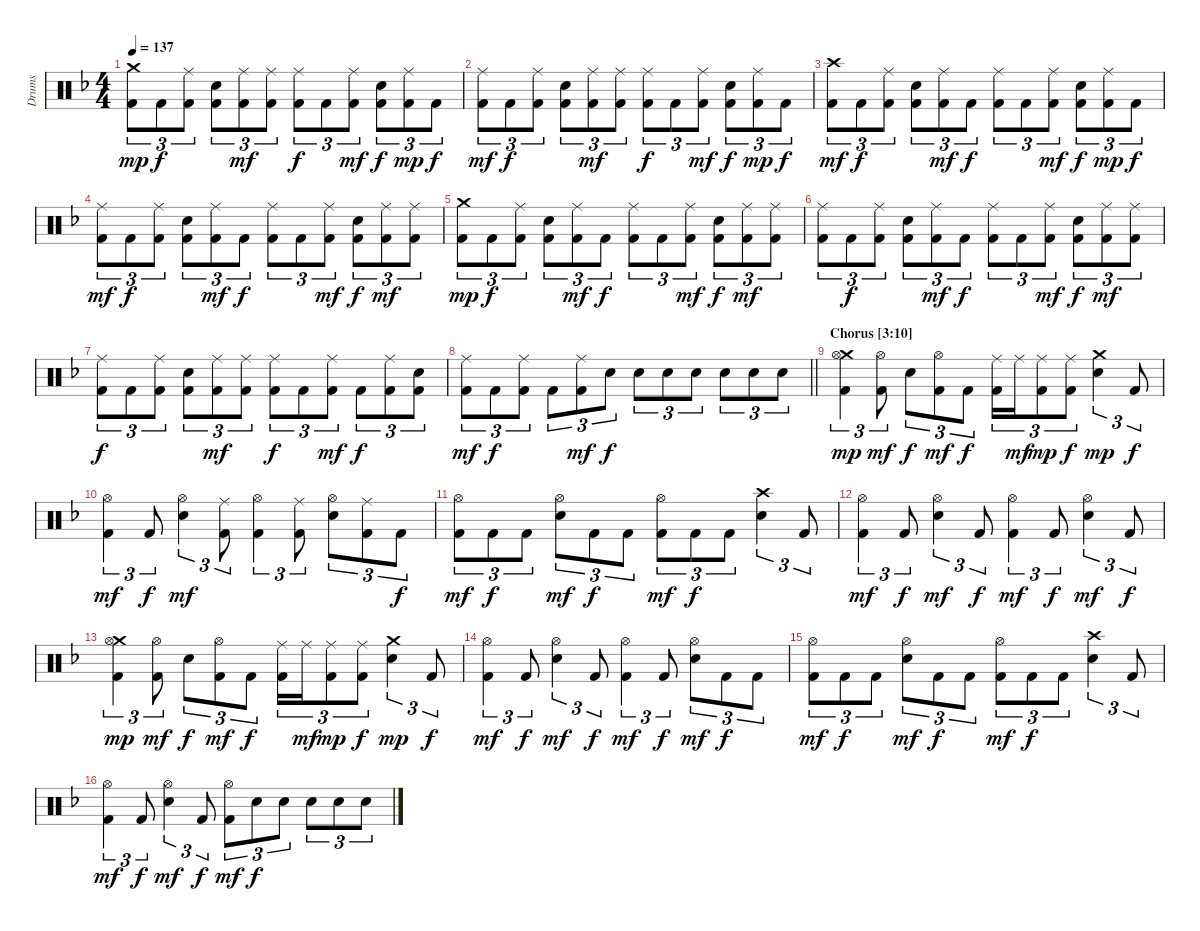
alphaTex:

\track ("Drums" "Drums") {instrument percussion}
\staff {score}
\articulation defaults
\ts (4 4)
\tempo 137
\clef neutral
\ks dminor
("Crash medium (hit)" "Kick (hit) 2").8{tu (3 2) dy mp} "Kick (hit) 2".8{tu (3 2) dy f} ("Ride (middle)" "Kick (hit) 2").8{tu (3 2)} ("Snare (hit) 2" "Kick (hit) 2").8{tu (3 2)} ("Ride (middle)" "Kick (hit) 2").8{tu (3 2) dy mf} ("Ride (middle)" "Kick (hit) 2").8{tu (3 2)} ("Ride (middle)" "Kick (hit) 2").8{tu (3 2) dy f} "Kick (hit) 2".8{tu (3 2)} ("Ride (middle)" "Kick (hit) 2").8{tu (3 2) dy mf} ("Snare (hit) 2" "Kick (hit) 2").8{tu (3 2) dy f} ("Ride (middle)" "Kick (hit) 2").8{tu (3 2) dy mp} "Kick (hit) 2".8{tu (3 2) dy f} |
("Ride (middle)" "Kick (hit) 2").8{tu (3 2) dy mf} "Kick (hit) 2".8{tu (3 2) dy f} ("Ride (middle)" "Kick (hit) 2").8{tu (3 2)} ("Snare (hit) 2" "Kick (hit) 2").8{tu (3 2)} ("Ride (middle)" "Kick (hit) 2").8{tu (3 2) dy mf} ("Ride (middle)" "Kick (hit) 2").8{tu (3 2)} ("Ride (middle)" "Kick (hit) 2").8{tu (3 2) dy f} "Kick (hit) 2".8{tu (3 2)} ("Ride (middle)" "Kick (hit) 2").8{tu (3 2) dy mf} ("Snare (hit) 2" "Kick (hit) 2").8{tu (3 2) dy f} ("Ride (middle)" "Kick (hit) 2").8{tu (3 2) dy mp} "Kick (hit) 2".8{tu (3 2) dy f} |
("Crash high (hit)" "Kick (hit) 2").8{tu (3 2) dy mf} "Kick (hit) 2".8{tu (3 2) dy f} ("Ride (middle)" "Kick (hit) 2").8{tu (3 2)} ("Snare (hit) 2" "Kick (hit) 2").8{tu (3 2)} ("Ride (middle)" "Kick (hit) 2").8{tu (3 2) dy mf} "Kick (hit) 2".8{tu (3 2) dy f} ("Ride (middle)" "Kick (hit) 2").8{tu (3 2)} "Kick (hit) 2".8{tu (3 2)} ("Ride (middle)" "Kick (hit) 2").8{tu (3 2) dy mf} ("Snare (hit) 2" "Kick (hit) 2").8{tu (3 2) dy f} ("Ride (middle)" "Kick (hit) 2").8{tu (3 2) dy mp} "Kick (hit) 2".8{tu (3 2) dy f} |
("Ride (middle)" "Kick (hit) 2").8{tu (3 2) dy mf} "Kick (hit) 2".8{tu (3 2) dy f} ("Ride (middle)" "Kick (hit) 2").8{tu (3 2)} ("Snare (hit) 2" "Kick (hit) 2").8{tu (3 2)} ("Ride (middle)" "Kick (hit) 2").8{tu (3 2) dy mf} "Kick (hit) 2".8{tu (3 2) dy f} ("Ride (middle)" "Kick (hit) 2").8{tu (3 2)} "Kick (hit) 2".8{tu (3 2)} ("Ride (middle)" "Kick (hit) 2").8{tu (3 2) dy mf} ("Snare (hit) 2" "Kick (hit) 2").8{tu (3 2) dy f} ("Ride (middle)" "Kick (hit) 2").8{tu (3 2) dy mf} ("Ride (middle)" "Kick (hit) 2").8{tu (3 2)} |
("Crash medium (hit)" "Kick (hit) 2").8{tu (3 2) dy mp} "Kick (hit) 2".8{tu (3 2) dy f} ("Ride (middle)" "Kick (hit) 2").8{tu (3 2)} ("Snare (hit) 2" "Kick (hit) 2").8{tu (3 2)} ("Ride (middle)" "Kick (hit) 2").8{tu (3 2) dy mf} "Kick (hit) 2".8{tu (3 2) dy f} ("Ride (middle)" "Kick (hit) 2").8{tu (3 2)} "Kick (hit) 2".8{tu (3 2)} ("Ride (middle)" "Kick (hit) 2").8{tu (3 2) dy mf} ("Snare (hit) 2" "Kick (hit) 2").8{tu (3 2) dy f} ("Ride (middle)" "Kick (hit) 2").8{tu (3 2) dy mf} ("Ride (middle)" "Kick (hit) 2").8{tu (3 2)} |
("Ride (middle)" "Kick (hit) 2").8{tu (3 2)} "Kick (hit) 2".8{tu (3 2) dy f} ("Ride (middle)" "Kick (hit) 2").8{tu (3 2)} ("Snare (hit) 2" "Kick (hit) 2").8{tu (3 2)} ("Ride (middle)" "Kick (hit) 2").8{tu (3 2) dy mf} "Kick (hit) 2".8{tu (3 2) dy f} ("Ride (middle)" "Kick (hit) 2").8{tu (3 2)} "Kick (hit) 2".8{tu (3 2)} ("Ride (middle)" "Kick (hit) 2").8{tu (3 2) dy mf} ("Snare (hit) 2" "Kick (hit) 2").8{tu (3 2) dy f} ("Ride (middle)" "Kick (hit) 2").8{tu (3 2) dy mf} ("Ride (middle)" "Kick (hit) 2").8{tu (3 2)} |
("Ride (middle)" "Kick (hit) 2").8{tu (3 2) dy f} "Kick (hit) 2".8{tu (3 2)} ("Ride (middle)" "Kick (hit) 2").8{tu (3 2)} ("Snare (hit) 2" "Kick (hit) 2").8{tu (3 2)} ("Ride (middle)" "Kick (hit) 2").8{tu (3 2) dy mf} ("Ride (middle)" "Kick (hit) 2").8{tu (3 2)} ("Ride (middle)" "Kick (hit) 2").8{tu (3 2) dy f} "Kick (hit) 2".8{tu (3 2)} ("Ride (middle)" "Kick (hit) 2").8{tu (3 2) dy mf} "Kick (hit) 2".8{tu (3 2) dy f} ("Ride (middle)" "Kick (hit) 2").8{tu (3 2)} ("Snare (hit) 2" "Kick (hit) 2").8{tu (3 2)} |
\barLineRight lightlight
("Ride (middle)" "Kick (hit) 2").8{tu (3 2) dy mf} "Kick (hit) 2".8{tu (3 2) dy f} ("Ride (middle)" "Kick (hit) 2").8{tu (3 2)} "Kick (hit) 2".8{tu (3 2)} ("Ride (middle)" "Kick (hit) 2").8{tu (3 2) dy mf} "Snare (hit) 2".8{tu (3 2) dy f} "Snare (hit) 2".8{tu (3 2)} "Snare (hit) 2".8{tu (3 2)} "Snare (hit) 2".8{tu (3 2)} "Snare (hit) 2".8{tu (3 2)} "Snare (hit) 2".8{tu (3 2)} "Snare (hit) 2".8{tu (3 2)} |
\section ("" "Chorus [3:10]")
("Crash medium (hit)" "Hi-Hat (open)" "Kick (hit) 2").4{tu (3 2) dy mp} ("Hi-Hat (open)" "Kick (hit) 2").8{tu (3 2) dy mf} "Snare (hit) 2".8{tu (3 2) dy f} ("Hi-Hat (open)" "Kick (hit) 2").8{tu (3 2) dy mf} "Kick (hit) 2".8{tu (3 2) dy f} ("Ride (middle)" "Kick (hit) 2").16{tu (3 2)} "Ride (middle)".16{tu (3 2) dy mf} ("Ride (middle)" "Kick (hit) 2").8{tu (3 2) dy mp} ("Ride (middle)" "Kick (hit) 2").8{tu (3 2) dy f} ("Crash medium (hit)" "Snare (hit) 2").4{tu (3 2) dy mp} "Kick (hit) 2".8{tu (3 2) dy f} |
("Hi-Hat (open)" "Kick (hit) 2").4{tu (3 2) dy mf} "Kick (hit) 2".8{tu (3 2) dy f} ("Hi-Hat (open)" "Snare (hit) 2").4{tu (3 2) dy mf} ("Ride (middle)" "Kick (hit) 2").8{tu (3 2)} ("Hi-Hat (open)" "Kick (hit) 2").4{tu (3 2)} ("Ride (middle)" "Kick (hit) 2").8{tu (3 2)} ("Hi-Hat (open)" "Snare (hit) 2").8{tu (3 2)} ("Ride (middle)" "Kick (hit) 2").8{tu (3 2)} "Kick (hit) 2".8{tu (3 2) dy f} |
("Hi-Hat (open)" "Kick (hit) 2").8{tu (3 2) dy mf} "Kick (hit) 2".8{tu (3 2) dy f} "Kick (hit) 2".8{tu (3 2)} ("Hi-Hat (open)" "Snare (hit) 2").8{tu (3 2) dy mf} "Kick (hit) 2".8{tu (3 2) dy f} "Kick (hit) 2".8{tu (3 2)} ("Hi-Hat (open)" "Kick (hit) 2").8{tu (3 2) dy mf} "Kick (hit) 2".8{tu (3 2) dy f} "Kick (hit) 2".8{tu (3 2)} ("Crash high (hit)" "Snare (hit) 2").4{tu (3 2)} "Kick (hit) 2".8{tu (3 2)} |
("Hi-Hat (open)" "Kick (hit) 2").4{tu (3 2) dy mf} "Kick (hit) 2".8{tu (3 2) dy f} ("Hi-Hat (open)" "Snare (hit) 2").4{tu (3 2) dy mf} "Kick (hit) 2".8{tu (3 2) dy f} ("Hi-Hat (open)" "Kick (hit) 2").4{tu (3 2) dy mf} "Kick (hit) 2".8{tu (3 2) dy f} ("Hi-Hat (open)" "Snare (hit) 2").4{tu (3 2) dy mf} "Kick (hit) 2".8{tu (3 2) dy f} |
("Crash medium (hit)" "Hi-Hat (open)" "Kick (hit) 2").4{tu (3 2) dy mp} ("Hi-Hat (open)" "Kick (hit) 2").8{tu (3 2) dy mf} "Snare (hit) 2".8{tu (3 2) dy f} ("Hi-Hat (open)" "Kick (hit) 2").8{tu (3 2) dy mf} "Kick (hit) 2".8{tu (3 2) dy f} ("Ride (middle)" "Kick (hit) 2").16{tu (3 2)} "Ride (middle)".16{tu (3 2) dy mf} ("Ride (middle)" "Kick (hit) 2").8{tu (3 2) dy mp} ("Ride (middle)" "Kick (hit) 2").8{tu (3 2) dy f} ("Crash medium (hit)" "Snare (hit) 2").4{tu (3 2) dy mp} "Kick (hit) 2".8{tu (3 2) dy f} |
("Hi-Hat (open)" "Kick (hit) 2").4{tu (3 2) dy mf} "Kick (hit) 2".8{tu (3 2) dy f} ("Hi-Hat (open)" "Snare (hit) 2").4{tu (3 2) dy mf} "Kick (hit) 2".8{tu (3 2) dy f} ("Hi-Hat (open)" "Kick (hit) 2").4{tu (3 2) dy mf} "Kick (hit) 2".8{tu (3 2) dy f} ("Hi-Hat (open)" "Snare (hit) 2").8{tu (3 2) dy mf} "Kick (hit) 2".8{tu (3 2) dy f} "Kick (hit) 2".8{tu (3 2)} |
("Hi-Hat (open)" "Kick (hit) 2").8{tu (3 2) dy mf} "Kick (hit) 2".8{tu (3 2) dy f} "Kick (hit) 2".8{tu (3 2)} ("Hi-Hat (open)" "Snare (hit) 2").8{tu (3 2) dy mf} "Kick (hit) 2".8{tu (3 2) dy f} "Kick (hit) 2".8{tu (3 2)} ("Hi-Hat (open)" "Kick (hit) 2").8{tu (3 2) dy mf} "Kick (hit) 2".8{tu (3 2) dy f} "Kick (hit) 2".8{tu (3 2)} ("Crash high (hit)" "Snare (hit) 2").4{tu (3 2)} "Kick (hit) 2".8{tu (3 2)} |
("Hi-Hat (open)" "Kick (hit) 2").4{tu (3 2) dy mf} "Kick (hit) 2".8{tu (3 2) dy f} ("Hi-Hat (open)" "Snare (hit) 2").4{tu (3 2) dy mf} "Kick (hit) 2".8{tu (3 2) dy f} ("Hi-Hat (open)" "Kick (hit) 2").8{tu (3 2) dy mf} "Snare (hit) 2".8{tu (3 2) dy f} "Snare (hit) 2".8{tu (3 2)} "Snare (hit) 2".8{tu (3 2)} "Snare (hit) 2".8{tu (3 2)} "Snare (hit) 2".8{tu (3 2)}
